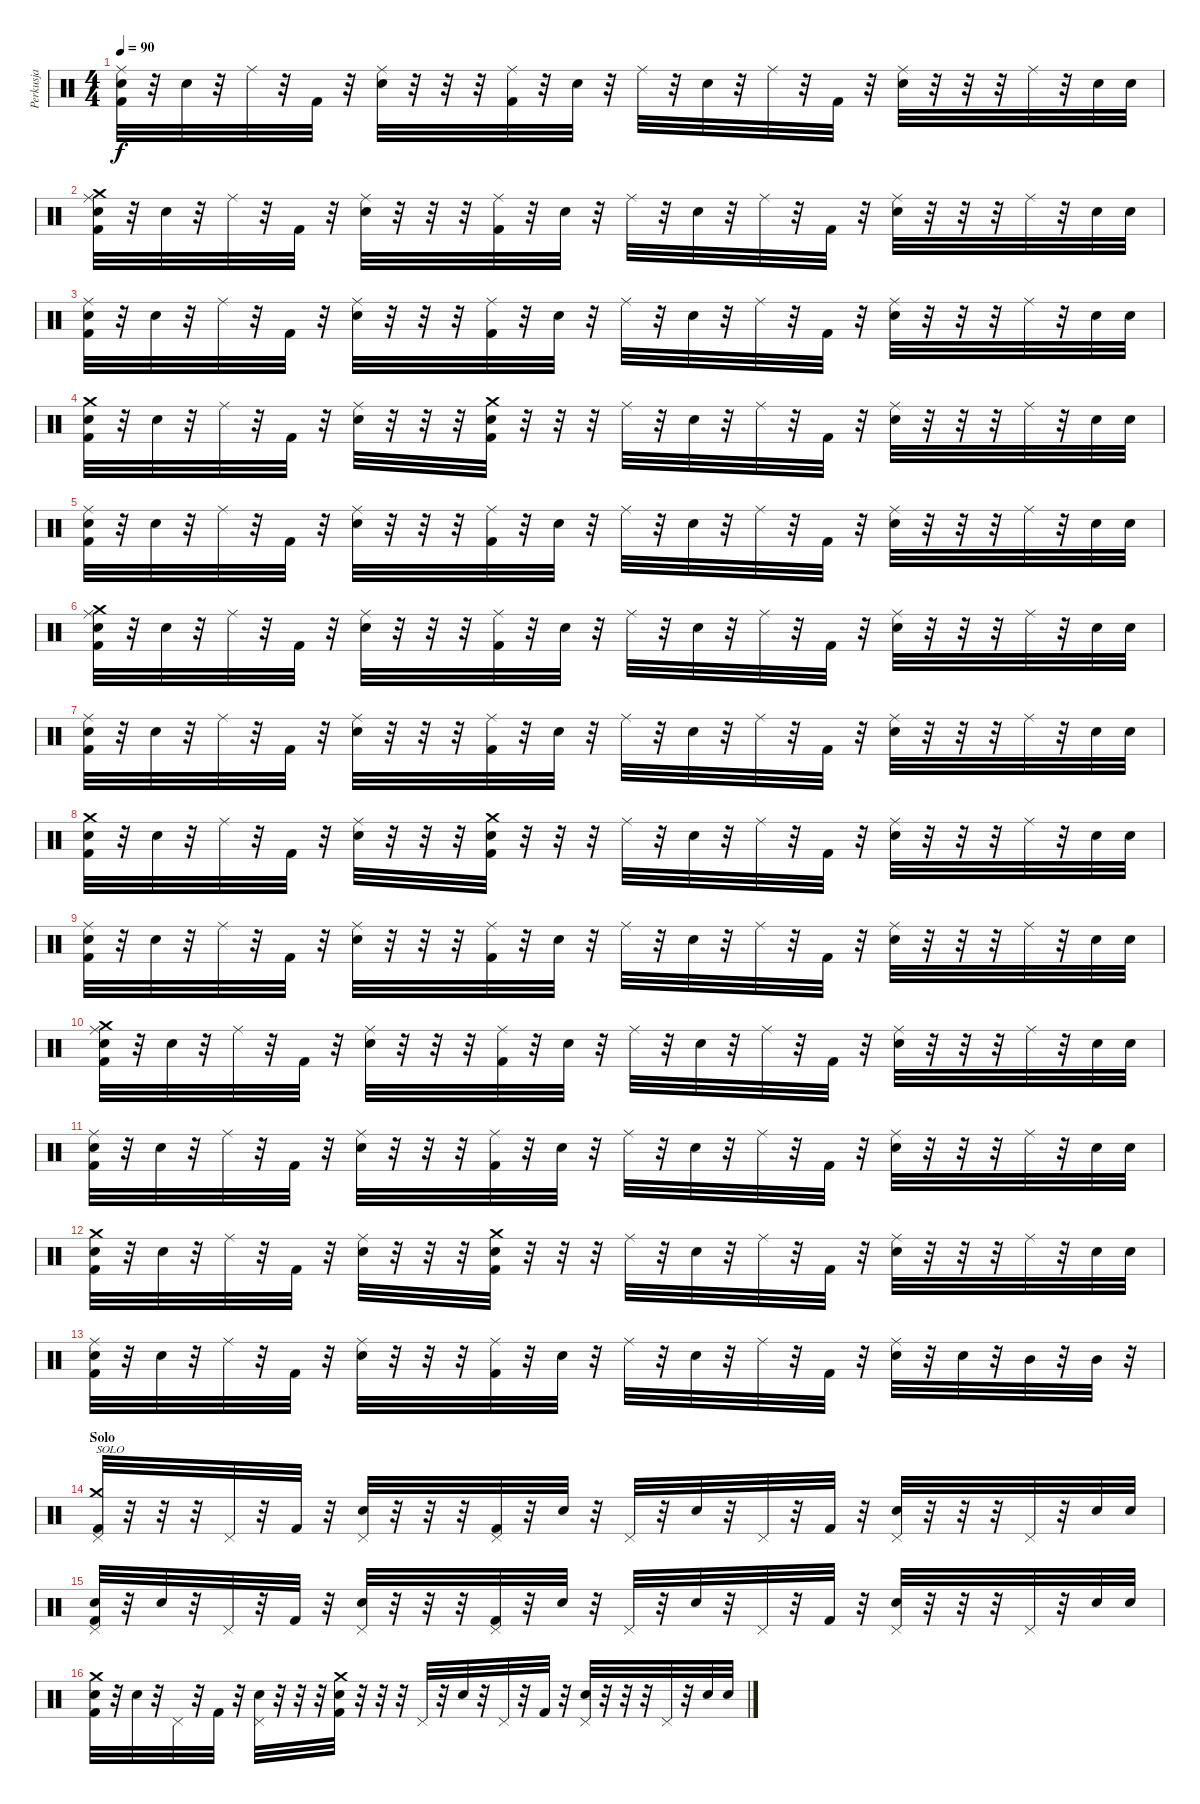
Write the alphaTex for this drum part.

\track ("Perkusja" "Perkusja") {instrument percussion}
\staff {score}
\articulation defaults
\ts (4 4)
\tempo 90
\clef neutral
\ks c
("Ride (middle)" "Snare (hit) 2" "Kick (hit) 2").32{dy f} r.32 "Snare (hit) 2".32 r.32 "Ride (middle)".32 r.32 "Kick (hit) 2".32 r.32 ("Ride (middle)" "Electric Snare (hit)").32 r.32 r.32 r.32 ("Ride (middle)" "Kick (hit) 2").32 r.32 "Snare (hit) 2".32 r.32 "Ride (middle)".32 r.32 "Snare (hit) 2".32 r.32 "Ride (middle)".32 r.32 "Kick (hit) 2".32 r.32 ("Ride (middle)" "Electric Snare (hit)").32 r.32 r.32 r.32 "Ride (middle)".32 r.32 "Snare (hit) 2".32 "Snare (hit) 2".32 |
("Crash medium (hit)" "Ride (middle)" "Snare (hit) 2" "Kick (hit) 2").32 r.32 "Snare (hit) 2".32 r.32 "Ride (middle)".32 r.32 "Kick (hit) 2".32 r.32 ("Ride (middle)" "Electric Snare (hit)").32 r.32 r.32 r.32 ("Ride (middle)" "Kick (hit) 2").32 r.32 "Snare (hit) 2".32 r.32 "Ride (middle)".32 r.32 "Snare (hit) 2".32 r.32 "Ride (middle)".32 r.32 "Kick (hit) 2".32 r.32 ("Ride (middle)" "Electric Snare (hit)").32 r.32 r.32 r.32 "Ride (middle)".32 r.32 "Snare (hit) 2".32 "Snare (hit) 2".32 |
("Ride (middle)" "Snare (hit) 2" "Kick (hit) 2").32 r.32 "Snare (hit) 2".32 r.32 "Ride (middle)".32 r.32 "Kick (hit) 2".32 r.32 ("Ride (middle)" "Electric Snare (hit)").32 r.32 r.32 r.32 ("Ride (middle)" "Kick (hit) 2").32 r.32 "Snare (hit) 2".32 r.32 "Ride (middle)".32 r.32 "Snare (hit) 2".32 r.32 "Ride (middle)".32 r.32 "Kick (hit) 2".32 r.32 ("Ride (middle)" "Electric Snare (hit)").32 r.32 r.32 r.32 "Ride (middle)".32 r.32 "Snare (hit) 2".32 "Snare (hit) 2".32 |
("Crash medium (hit)" "Snare (hit) 2" "Kick (hit) 2").32 r.32 "Snare (hit) 2".32 r.32 "Ride (middle)".32 r.32 "Kick (hit) 2".32 r.32 ("Ride (middle)" "Electric Snare (hit)").32 r.32 r.32 r.32 ("Crash medium (hit)" "Electric Snare (hit)" "Kick (hit) 2").32 r.32 r.32 r.32 "Ride (middle)".32 r.32 "Snare (hit) 2".32 r.32 "Ride (middle)".32 r.32 "Kick (hit) 2".32 r.32 ("Ride (middle)" "Electric Snare (hit)").32 r.32 r.32 r.32 "Ride (middle)".32 r.32 "Snare (hit) 2".32 "Snare (hit) 2".32 |
("Ride (middle)" "Snare (hit) 2" "Kick (hit) 2").32 r.32 "Snare (hit) 2".32 r.32 "Ride (middle)".32 r.32 "Kick (hit) 2".32 r.32 ("Ride (middle)" "Electric Snare (hit)").32 r.32 r.32 r.32 ("Ride (middle)" "Kick (hit) 2").32 r.32 "Snare (hit) 2".32 r.32 "Ride (middle)".32 r.32 "Snare (hit) 2".32 r.32 "Ride (middle)".32 r.32 "Kick (hit) 2".32 r.32 ("Ride (middle)" "Electric Snare (hit)").32 r.32 r.32 r.32 "Ride (middle)".32 r.32 "Snare (hit) 2".32 "Snare (hit) 2".32 |
("Crash medium (hit)" "Ride (middle)" "Snare (hit) 2" "Kick (hit) 2").32 r.32 "Snare (hit) 2".32 r.32 "Ride (middle)".32 r.32 "Kick (hit) 2".32 r.32 ("Ride (middle)" "Electric Snare (hit)").32 r.32 r.32 r.32 ("Ride (middle)" "Kick (hit) 2").32 r.32 "Snare (hit) 2".32 r.32 "Ride (middle)".32 r.32 "Snare (hit) 2".32 r.32 "Ride (middle)".32 r.32 "Kick (hit) 2".32 r.32 ("Ride (middle)" "Electric Snare (hit)").32 r.32 r.32 r.32 "Ride (middle)".32 r.32 "Snare (hit) 2".32 "Snare (hit) 2".32 |
("Ride (middle)" "Snare (hit) 2" "Kick (hit) 2").32 r.32 "Snare (hit) 2".32 r.32 "Ride (middle)".32 r.32 "Kick (hit) 2".32 r.32 ("Ride (middle)" "Electric Snare (hit)").32 r.32 r.32 r.32 ("Ride (middle)" "Kick (hit) 2").32 r.32 "Snare (hit) 2".32 r.32 "Ride (middle)".32 r.32 "Snare (hit) 2".32 r.32 "Ride (middle)".32 r.32 "Kick (hit) 2".32 r.32 ("Ride (middle)" "Electric Snare (hit)").32 r.32 r.32 r.32 "Ride (middle)".32 r.32 "Snare (hit) 2".32 "Snare (hit) 2".32 |
("Crash medium (hit)" "Snare (hit) 2" "Kick (hit) 2").32 r.32 "Snare (hit) 2".32 r.32 "Ride (middle)".32 r.32 "Kick (hit) 2".32 r.32 ("Ride (middle)" "Electric Snare (hit)").32 r.32 r.32 r.32 ("Crash medium (hit)" "Electric Snare (hit)" "Kick (hit) 2").32 r.32 r.32 r.32 "Ride (middle)".32 r.32 "Snare (hit) 2".32 r.32 "Ride (middle)".32 r.32 "Kick (hit) 2".32 r.32 ("Ride (middle)" "Electric Snare (hit)").32 r.32 r.32 r.32 "Ride (middle)".32 r.32 "Snare (hit) 2".32 "Snare (hit) 2".32 |
("Ride (middle)" "Snare (hit) 2" "Kick (hit) 2").32 r.32 "Snare (hit) 2".32 r.32 "Ride (middle)".32 r.32 "Kick (hit) 2".32 r.32 ("Ride (middle)" "Electric Snare (hit)").32 r.32 r.32 r.32 ("Ride (middle)" "Kick (hit) 2").32 r.32 "Snare (hit) 2".32 r.32 "Ride (middle)".32 r.32 "Snare (hit) 2".32 r.32 "Ride (middle)".32 r.32 "Kick (hit) 2".32 r.32 ("Ride (middle)" "Electric Snare (hit)").32 r.32 r.32 r.32 "Ride (middle)".32 r.32 "Snare (hit) 2".32 "Snare (hit) 2".32 |
("Crash medium (hit)" "Ride (middle)" "Snare (hit) 2" "Kick (hit) 2").32 r.32 "Snare (hit) 2".32 r.32 "Ride (middle)".32 r.32 "Kick (hit) 2".32 r.32 ("Ride (middle)" "Electric Snare (hit)").32 r.32 r.32 r.32 ("Ride (middle)" "Kick (hit) 2").32 r.32 "Snare (hit) 2".32 r.32 "Ride (middle)".32 r.32 "Snare (hit) 2".32 r.32 "Ride (middle)".32 r.32 "Kick (hit) 2".32 r.32 ("Ride (middle)" "Electric Snare (hit)").32 r.32 r.32 r.32 "Ride (middle)".32 r.32 "Snare (hit) 2".32 "Snare (hit) 2".32 |
("Ride (middle)" "Snare (hit) 2" "Kick (hit) 2").32 r.32 "Snare (hit) 2".32 r.32 "Ride (middle)".32 r.32 "Kick (hit) 2".32 r.32 ("Ride (middle)" "Electric Snare (hit)").32 r.32 r.32 r.32 ("Ride (middle)" "Kick (hit) 2").32 r.32 "Snare (hit) 2".32 r.32 "Ride (middle)".32 r.32 "Snare (hit) 2".32 r.32 "Ride (middle)".32 r.32 "Kick (hit) 2".32 r.32 ("Ride (middle)" "Electric Snare (hit)").32 r.32 r.32 r.32 "Ride (middle)".32 r.32 "Snare (hit) 2".32 "Snare (hit) 2".32 |
("Crash medium (hit)" "Snare (hit) 2" "Kick (hit) 2").32 r.32 "Snare (hit) 2".32 r.32 "Ride (middle)".32 r.32 "Kick (hit) 2".32 r.32 ("Ride (middle)" "Electric Snare (hit)").32 r.32 r.32 r.32 ("Crash medium (hit)" "Electric Snare (hit)" "Kick (hit) 2").32 r.32 r.32 r.32 "Ride (middle)".32 r.32 "Snare (hit) 2".32 r.32 "Ride (middle)".32 r.32 "Kick (hit) 2".32 r.32 ("Ride (middle)" "Electric Snare (hit)").32 r.32 r.32 r.32 "Ride (middle)".32 r.32 "Snare (hit) 2".32 "Snare (hit) 2".32 |
("Ride (middle)" "Snare (hit) 2" "Kick (hit) 2").32 r.32 "Snare (hit) 2".32 r.32 "Ride (middle)".32 r.32 "Kick (hit) 2".32 r.32 ("Ride (middle)" "Electric Snare (hit)").32 r.32 r.32 r.32 ("Ride (middle)" "Kick (hit) 2").32 r.32 "Snare (hit) 2".32 r.32 "Ride (middle)".32 r.32 "Snare (hit) 2".32 r.32 "Ride (middle)".32 r.32 "Kick (hit) 2".32 r.32 ("Ride (middle)" "Electric Snare (hit)").32 r.32 "Electric Snare (hit)".32 r.32 "Mid Tom (hit)".32 r.32 "Mid Tom (hit)".32 r.32 |
\section ("" "Solo")
("Crash medium (hit)" "Pedal Hi-Hat (hit)" "Kick (hit) 2").32{txt "SOLO"} r.32 r.32 r.32 "Pedal Hi-Hat (hit)".32 r.32 "Kick (hit) 2".32 r.32 ("Pedal Hi-Hat (hit)" "Electric Snare (hit)").32 r.32 r.32 r.32 ("Pedal Hi-Hat (hit)" "Kick (hit) 2").32 r.32 "Snare (hit) 2".32 r.32 "Pedal Hi-Hat (hit)".32 r.32 "Snare (hit) 2".32 r.32 "Pedal Hi-Hat (hit)".32 r.32 "Kick (hit) 2".32 r.32 ("Pedal Hi-Hat (hit)" "Electric Snare (hit)").32 r.32 r.32 r.32 "Pedal Hi-Hat (hit)".32 r.32 "Snare (hit) 2".32 "Snare (hit) 2".32 |
("Pedal Hi-Hat (hit)" "Snare (hit) 2" "Kick (hit) 2").32 r.32 "Snare (hit) 2".32 r.32 "Pedal Hi-Hat (hit)".32 r.32 "Kick (hit) 2".32 r.32 ("Pedal Hi-Hat (hit)" "Electric Snare (hit)").32 r.32 r.32 r.32 ("Pedal Hi-Hat (hit)" "Kick (hit) 2").32 r.32 "Snare (hit) 2".32 r.32 "Pedal Hi-Hat (hit)".32 r.32 "Snare (hit) 2".32 r.32 "Pedal Hi-Hat (hit)".32 r.32 "Kick (hit) 2".32 r.32 ("Pedal Hi-Hat (hit)" "Electric Snare (hit)").32 r.32 r.32 r.32 "Pedal Hi-Hat (hit)".32 r.32 "Snare (hit) 2".32 "Snare (hit) 2".32 |
("Crash medium (hit)" "Snare (hit) 2" "Kick (hit) 2").32 r.32 "Snare (hit) 2".32 r.32 "Pedal Hi-Hat (hit)".32 r.32 "Kick (hit) 2".32 r.32 ("Pedal Hi-Hat (hit)" "Electric Snare (hit)").32 r.32 r.32 r.32 ("Crash medium (hit)" "Electric Snare (hit)" "Kick (hit) 2").32 r.32 r.32 r.32 "Pedal Hi-Hat (hit)".32 r.32 "Snare (hit) 2".32 r.32 "Pedal Hi-Hat (hit)".32 r.32 "Kick (hit) 2".32 r.32 ("Pedal Hi-Hat (hit)" "Electric Snare (hit)").32 r.32 r.32 r.32 "Pedal Hi-Hat (hit)".32 r.32 "Snare (hit) 2".32 "Snare (hit) 2".32
